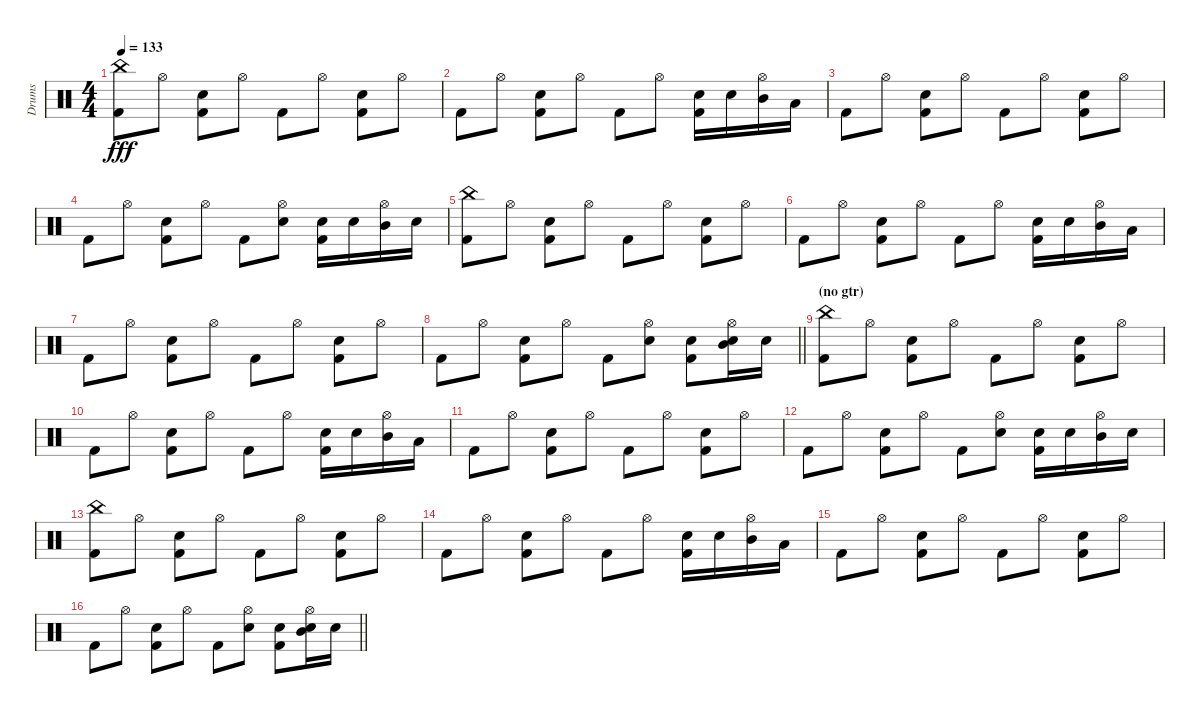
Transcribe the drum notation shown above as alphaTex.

\track ("Drums" "Drums") {instrument percussion}
\staff {score}
\articulation defaults
\ts (4 4)
\tempo 133
\clef neutral
\ks c
("Kick (hit) 2" "China (hit)").8{dy fff} "Hi-Hat (open)".8 ("Kick (hit) 2" "Snare (hit) 2").8 "Hi-Hat (open)".8 "Kick (hit) 2".8 "Hi-Hat (open)".8 ("Kick (hit) 2" "Snare (hit) 2").8 "Hi-Hat (open)".8 |
"Kick (hit) 2".8 "Hi-Hat (open)".8 ("Kick (hit) 2" "Snare (hit) 2").8 "Hi-Hat (open)".8 "Kick (hit) 2".8 "Hi-Hat (open)".8 ("Kick (hit) 2" "Snare (hit) 2").16 "Snare (hit) 2".16 ("Hi-Hat (open)" "Mid Tom (hit)").16 "Low Tom (hit)".16 |
"Kick (hit) 2".8 "Hi-Hat (open)".8 ("Kick (hit) 2" "Snare (hit) 2").8 "Hi-Hat (open)".8 "Kick (hit) 2".8 "Hi-Hat (open)".8 ("Kick (hit) 2" "Snare (hit) 2").8 "Hi-Hat (open)".8 |
"Kick (hit) 2".8 "Hi-Hat (open)".8 ("Kick (hit) 2" "Snare (hit) 2").8 "Hi-Hat (open)".8 "Kick (hit) 2".8 ("Snare (hit) 2" "Hi-Hat (open)").8 ("Kick (hit) 2" "Snare (hit) 2").16 "Snare (hit) 2".16 ("Hi-Hat (open)" "Mid Tom (hit)").16 "Snare (hit) 2".16 |
("Kick (hit) 2" "China (hit)").8 "Hi-Hat (open)".8 ("Kick (hit) 2" "Snare (hit) 2").8 "Hi-Hat (open)".8 "Kick (hit) 2".8 "Hi-Hat (open)".8 ("Kick (hit) 2" "Snare (hit) 2").8 "Hi-Hat (open)".8 |
"Kick (hit) 2".8 "Hi-Hat (open)".8 ("Kick (hit) 2" "Snare (hit) 2").8 "Hi-Hat (open)".8 "Kick (hit) 2".8 "Hi-Hat (open)".8 ("Kick (hit) 2" "Snare (hit) 2").16 "Snare (hit) 2".16 ("Hi-Hat (open)" "Mid Tom (hit)").16 "Low Tom (hit)".16 |
"Kick (hit) 2".8 "Hi-Hat (open)".8 ("Kick (hit) 2" "Snare (hit) 2").8 "Hi-Hat (open)".8 "Kick (hit) 2".8 "Hi-Hat (open)".8 ("Kick (hit) 2" "Snare (hit) 2").8 "Hi-Hat (open)".8 |
\barLineRight lightlight "Kick (hit) 2".8 "Hi-Hat (open)".8
("Kick (hit) 2" "Snare (hit) 2").8 "Hi-Hat (open)".8 "Kick (hit) 2".8 ("Snare (hit) 2" "Hi-Hat (open)").8 ("Kick (hit) 2" "Snare (hit) 2").8 ("Snare (hit) 2" "Hi-Hat (open)" "Mid Tom (hit)").16 "Snare (hit) 2".16 |
\section ("" "(no gtr)")
("Kick (hit) 2" "China (hit)").8 "Hi-Hat (open)".8 ("Kick (hit) 2" "Snare (hit) 2").8 "Hi-Hat (open)".8 "Kick (hit) 2".8 "Hi-Hat (open)".8 ("Kick (hit) 2" "Snare (hit) 2").8 "Hi-Hat (open)".8 |
"Kick (hit) 2".8 "Hi-Hat (open)".8 ("Kick (hit) 2" "Snare (hit) 2").8 "Hi-Hat (open)".8 "Kick (hit) 2".8 "Hi-Hat (open)".8 ("Kick (hit) 2" "Snare (hit) 2").16 "Snare (hit) 2".16 ("Hi-Hat (open)" "Mid Tom (hit)").16 "Low Tom (hit)".16 |
"Kick (hit) 2".8 "Hi-Hat (open)".8 ("Kick (hit) 2" "Snare (hit) 2").8 "Hi-Hat (open)".8 "Kick (hit) 2".8 "Hi-Hat (open)".8 ("Kick (hit) 2" "Snare (hit) 2").8 "Hi-Hat (open)".8 |
"Kick (hit) 2".8 "Hi-Hat (open)".8 ("Kick (hit) 2" "Snare (hit) 2").8 "Hi-Hat (open)".8 "Kick (hit) 2".8 ("Snare (hit) 2" "Hi-Hat (open)").8 ("Kick (hit) 2" "Snare (hit) 2").16 "Snare (hit) 2".16 ("Hi-Hat (open)" "Mid Tom (hit)").16 "Snare (hit) 2".16 |
("Kick (hit) 2" "China (hit)").8 "Hi-Hat (open)".8 ("Kick (hit) 2" "Snare (hit) 2").8 "Hi-Hat (open)".8 "Kick (hit) 2".8 "Hi-Hat (open)".8 ("Kick (hit) 2" "Snare (hit) 2").8 "Hi-Hat (open)".8 |
"Kick (hit) 2".8 "Hi-Hat (open)".8 ("Kick (hit) 2" "Snare (hit) 2").8 "Hi-Hat (open)".8 "Kick (hit) 2".8 "Hi-Hat (open)".8 ("Kick (hit) 2" "Snare (hit) 2").16 "Snare (hit) 2".16 ("Hi-Hat (open)" "Mid Tom (hit)").16 "Low Tom (hit)".16 |
"Kick (hit) 2".8 "Hi-Hat (open)".8 ("Kick (hit) 2" "Snare (hit) 2").8 "Hi-Hat (open)".8 "Kick (hit) 2".8 "Hi-Hat (open)".8 ("Kick (hit) 2" "Snare (hit) 2").8 "Hi-Hat (open)".8 |
\barLineRight lightlight "Kick (hit) 2".8 "Hi-Hat (open)".8
("Kick (hit) 2" "Snare (hit) 2").8 "Hi-Hat (open)".8 "Kick (hit) 2".8 ("Snare (hit) 2" "Hi-Hat (open)").8 ("Kick (hit) 2" "Snare (hit) 2").8 ("Snare (hit) 2" "Hi-Hat (open)" "Mid Tom (hit)").16 "Snare (hit) 2".16
